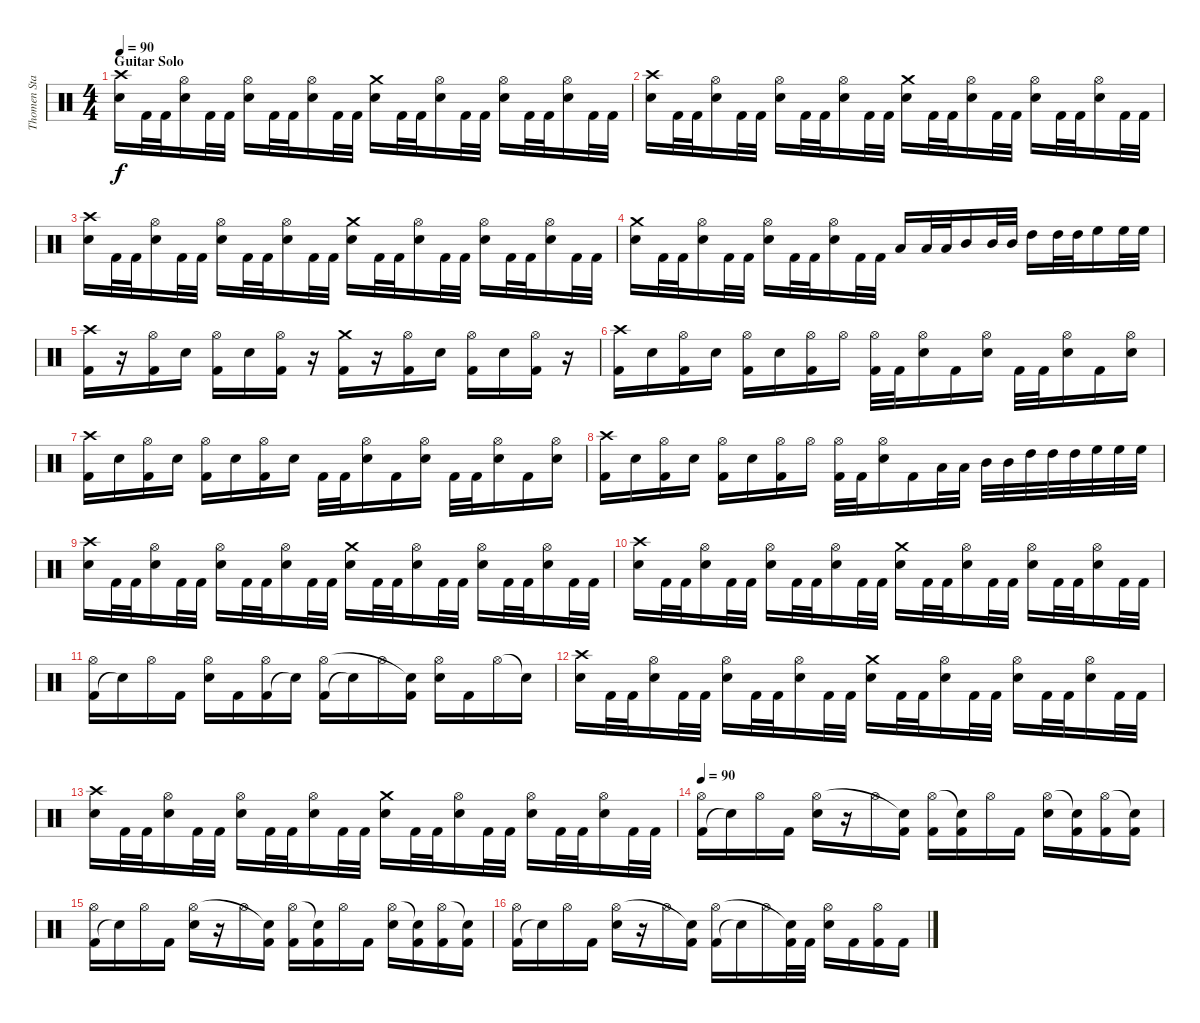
\track ("Thomen Stauch" "Thomen Sta") {instrument percussion}
\staff {score}
\articulation defaults
\ts (4 4)
\section ("" "Guitar Solo")
\tempo 90
\clef neutral
\ks c
("Snare (hit) 2" "Crash high (hit)").16{dy f} "Kick (hit) 2".32 "Kick (hit) 2".32 ("Snare (hit) 2" "Hi-Hat (open)").16 "Kick (hit) 2".32 "Kick (hit) 2".32 ("Snare (hit) 2" "Hi-Hat (open)").16 "Kick (hit) 2".32 "Kick (hit) 2".32 ("Snare (hit) 2" "Hi-Hat (open)").16 "Kick (hit) 2".32 "Kick (hit) 2".32 ("Snare (hit) 2" "Crash medium (hit)").16 "Kick (hit) 2".32 "Kick (hit) 2".32 ("Snare (hit) 2" "Hi-Hat (open)").16 "Kick (hit) 2".32 "Kick (hit) 2".32 ("Snare (hit) 2" "Hi-Hat (open)").16 "Kick (hit) 2".32 "Kick (hit) 2".32 ("Snare (hit) 2" "Hi-Hat (open)").16 "Kick (hit) 2".32 "Kick (hit) 2".32 |
("Snare (hit) 2" "Crash high (hit)").16 "Kick (hit) 2".32 "Kick (hit) 2".32 ("Snare (hit) 2" "Hi-Hat (open)").16 "Kick (hit) 2".32 "Kick (hit) 2".32 ("Snare (hit) 2" "Hi-Hat (open)").16 "Kick (hit) 2".32 "Kick (hit) 2".32 ("Snare (hit) 2" "Hi-Hat (open)").16 "Kick (hit) 2".32 "Kick (hit) 2".32 ("Snare (hit) 2" "Crash medium (hit)").16 "Kick (hit) 2".32 "Kick (hit) 2".32 ("Snare (hit) 2" "Hi-Hat (open)").16 "Kick (hit) 2".32 "Kick (hit) 2".32 ("Snare (hit) 2" "Hi-Hat (open)").16 "Kick (hit) 2".32 "Kick (hit) 2".32 ("Snare (hit) 2" "Hi-Hat (open)").16 "Kick (hit) 2".32 "Kick (hit) 2".32 |
("Snare (hit) 2" "Crash high (hit)").16 "Kick (hit) 2".32 "Kick (hit) 2".32 ("Snare (hit) 2" "Hi-Hat (open)").16 "Kick (hit) 2".32 "Kick (hit) 2".32 ("Snare (hit) 2" "Hi-Hat (open)").16 "Kick (hit) 2".32 "Kick (hit) 2".32 ("Snare (hit) 2" "Hi-Hat (open)").16 "Kick (hit) 2".32 "Kick (hit) 2".32 ("Snare (hit) 2" "Crash medium (hit)").16 "Kick (hit) 2".32 "Kick (hit) 2".32 ("Snare (hit) 2" "Hi-Hat (open)").16 "Kick (hit) 2".32 "Kick (hit) 2".32 ("Snare (hit) 2" "Hi-Hat (open)").16 "Kick (hit) 2".32 "Kick (hit) 2".32 ("Snare (hit) 2" "Hi-Hat (open)").16 "Kick (hit) 2".32 "Kick (hit) 2".32 |
("Snare (hit) 2" "Crash medium (hit)").16 "Kick (hit) 2".32 "Kick (hit) 2".32 ("Snare (hit) 2" "Hi-Hat (open)").16 "Kick (hit) 2".32 "Kick (hit) 2".32 ("Snare (hit) 2" "Hi-Hat (open)").16 "Kick (hit) 2".32 "Kick (hit) 2".32 ("Snare (hit) 2" "Hi-Hat (open)").16 "Kick (hit) 2".32 "Kick (hit) 2".32 "Low Tom (hit)".16 "Low Tom (hit)".32 "Low Tom (hit)".32 "Mid Tom (hit)".16 "Mid Tom (hit)".32 "Mid Tom (hit)".32 "High Tom (hit)".16 "High Tom (hit)".32 "High Tom (hit)".32 "High Floor Tom (hit)".16 "High Floor Tom (hit)".32 "High Floor Tom (hit)".32 |
("Kick (hit) 2" "Crash high (hit)").16 r.16 ("Kick (hit) 2" "Hi-Hat (open)").16 "Snare (hit) 2".16 ("Kick (hit) 2" "Hi-Hat (open)").16 "Snare (hit) 2".16 ("Kick (hit) 2" "Hi-Hat (open)").16 r.16 ("Kick (hit) 2" "Crash medium (hit)").16 r.16 ("Kick (hit) 2" "Hi-Hat (open)").16 "Snare (hit) 2".16 ("Kick (hit) 2" "Hi-Hat (open)").16 "Snare (hit) 2".16 ("Kick (hit) 2" "Hi-Hat (open)").16 r.16 |
("Kick (hit) 2" "Crash high (hit)").16 "Snare (hit) 2".16 ("Kick (hit) 2" "Hi-Hat (open)").16 "Snare (hit) 2".16 ("Kick (hit) 2" "Hi-Hat (open)").16 "Snare (hit) 2".16 ("Kick (hit) 2" "Hi-Hat (open)").16 "Hi-Hat (open)".16 ("Kick (hit) 2" "Hi-Hat (open)").32 "Kick (hit) 2".32 ("Snare (hit) 2" "Hi-Hat (open)").16 "Kick (hit) 2".16 ("Snare (hit) 2" "Hi-Hat (open)").16 "Kick (hit) 2".32 "Kick (hit) 2".32 ("Snare (hit) 2" "Hi-Hat (open)").16 "Kick (hit) 2".16 ("Snare (hit) 2" "Hi-Hat (open)").16 |
("Kick (hit) 2" "Crash high (hit)").16 "Snare (hit) 2".16 ("Kick (hit) 2" "Hi-Hat (open)").16 "Snare (hit) 2".16 ("Kick (hit) 2" "Hi-Hat (open)").16 "Snare (hit) 2".16 ("Kick (hit) 2" "Hi-Hat (open)").16 "Snare (hit) 2".16 "Kick (hit) 2".32 "Kick (hit) 2".32 ("Snare (hit) 2" "Hi-Hat (open)").16 "Kick (hit) 2".16 ("Snare (hit) 2" "Hi-Hat (open)").16 "Kick (hit) 2".32 "Kick (hit) 2".32 ("Snare (hit) 2" "Hi-Hat (open)").16 "Kick (hit) 2".16 ("Snare (hit) 2" "Hi-Hat (open)").16 |
("Kick (hit) 2" "Crash high (hit)").16 "Snare (hit) 2".16 ("Kick (hit) 2" "Hi-Hat (open)").16 "Snare (hit) 2".16 ("Kick (hit) 2" "Hi-Hat (open)").16 "Snare (hit) 2".16 ("Kick (hit) 2" "Hi-Hat (open)").16 "Hi-Hat (open)".16 ("Kick (hit) 2" "Hi-Hat (open)").32 "Kick (hit) 2".32 ("Snare (hit) 2" "Hi-Hat (open)").16 "Kick (hit) 2".16 "Low Tom (hit)".32 "Low Tom (hit)".32 "Mid Tom (hit)".32 "Mid Tom (hit)".32 "High Tom (hit)".32 "High Tom (hit)".32 "High Tom (hit)".32 "High Floor Tom (hit)".32 "High Floor Tom (hit)".32 "High Floor Tom (hit)".32 |
("Snare (hit) 2" "Crash high (hit)").16 "Kick (hit) 2".32 "Kick (hit) 2".32 ("Snare (hit) 2" "Hi-Hat (open)").16 "Kick (hit) 2".32 "Kick (hit) 2".32 ("Snare (hit) 2" "Hi-Hat (open)").16 "Kick (hit) 2".32 "Kick (hit) 2".32 ("Snare (hit) 2" "Hi-Hat (open)").16 "Kick (hit) 2".32 "Kick (hit) 2".32 ("Snare (hit) 2" "Crash medium (hit)").16 "Kick (hit) 2".32 "Kick (hit) 2".32 ("Snare (hit) 2" "Hi-Hat (open)").16 "Kick (hit) 2".32 "Kick (hit) 2".32 ("Snare (hit) 2" "Hi-Hat (open)").16 "Kick (hit) 2".32 "Kick (hit) 2".32 ("Snare (hit) 2" "Hi-Hat (open)").16 "Kick (hit) 2".32 "Kick (hit) 2".32 |
("Snare (hit) 2" "Crash high (hit)").16 "Kick (hit) 2".32 "Kick (hit) 2".32 ("Snare (hit) 2" "Hi-Hat (open)").16 "Kick (hit) 2".32 "Kick (hit) 2".32 ("Snare (hit) 2" "Hi-Hat (open)").16 "Kick (hit) 2".32 "Kick (hit) 2".32 ("Snare (hit) 2" "Hi-Hat (open)").16 "Kick (hit) 2".32 "Kick (hit) 2".32 ("Snare (hit) 2" "Crash medium (hit)").16 "Kick (hit) 2".32 "Kick (hit) 2".32 ("Snare (hit) 2" "Hi-Hat (open)").16 "Kick (hit) 2".32 "Kick (hit) 2".32 ("Snare (hit) 2" "Hi-Hat (open)").16 "Kick (hit) 2".32 "Kick (hit) 2".32 ("Snare (hit) 2" "Hi-Hat (open)").16 "Kick (hit) 2".32 "Kick (hit) 2".32 |
("Kick (hit) 2" "Hi-Hat (open)").16 "Snare (hit)"{t}.16 "Hi-Hat (open)".16 "Kick (hit) 2".16 ("Snare (hit) 2" "Hi-Hat (open)").16 "Kick (hit) 2".16 ("Kick (hit) 2" "Hi-Hat (open)").16 "Snare (hit)"{t}.16 ("Kick (hit) 2" "Hi-Hat (open)").16 "Snare (hit)"{t}.16 "Hi-Hat (open)".16 ("Kick (hit) 2" "Snare (hit)"{t}).16 ("Snare (hit) 2" "Hi-Hat (open)").16 "Kick (hit) 2".16 "Hi-Hat (open)".16 "Snare (hit)"{t}.16 |
("Snare (hit) 2" "Crash high (hit)").16 "Kick (hit) 2".32 "Kick (hit) 2".32 ("Snare (hit) 2" "Hi-Hat (open)").16 "Kick (hit) 2".32 "Kick (hit) 2".32 ("Snare (hit) 2" "Hi-Hat (open)").16 "Kick (hit) 2".32 "Kick (hit) 2".32 ("Snare (hit) 2" "Hi-Hat (open)").16 "Kick (hit) 2".32 "Kick (hit) 2".32 ("Snare (hit) 2" "Crash medium (hit)").16 "Kick (hit) 2".32 "Kick (hit) 2".32 ("Snare (hit) 2" "Hi-Hat (open)").16 "Kick (hit) 2".32 "Kick (hit) 2".32 ("Snare (hit) 2" "Hi-Hat (open)").16 "Kick (hit) 2".32 "Kick (hit) 2".32 ("Snare (hit) 2" "Hi-Hat (open)").16 "Kick (hit) 2".32 "Kick (hit) 2".32 |
("Snare (hit) 2" "Crash high (hit)").16 "Kick (hit) 2".32 "Kick (hit) 2".32 ("Snare (hit) 2" "Hi-Hat (open)").16 "Kick (hit) 2".32 "Kick (hit) 2".32 ("Snare (hit) 2" "Hi-Hat (open)").16 "Kick (hit) 2".32 "Kick (hit) 2".32 ("Snare (hit) 2" "Hi-Hat (open)").16 "Kick (hit) 2".32 "Kick (hit) 2".32 ("Snare (hit) 2" "Crash medium (hit)").16 "Kick (hit) 2".32 "Kick (hit) 2".32 ("Snare (hit) 2" "Hi-Hat (open)").16 "Kick (hit) 2".32 "Kick (hit) 2".32 ("Snare (hit) 2" "Hi-Hat (open)").16 "Kick (hit) 2".32 "Kick (hit) 2".32 ("Snare (hit) 2" "Hi-Hat (open)").16 "Kick (hit) 2".32 "Kick (hit) 2".32 |
\tempo 90
("Kick (hit) 2" "Hi-Hat (open)").16 "Snare (hit)"{t}.16 "Hi-Hat (open)".16 "Kick (hit) 2".16 ("Snare (hit) 2" "Hi-Hat (open)").16 r.16 "Hi-Hat (open)".16 ("Kick (hit) 2" "Snare (hit)"{t}).16 ("Kick (hit) 2" "Hi-Hat (open)").16 ("Kick (hit) 2" "Snare (hit)"{t}).16 "Hi-Hat (open)".16 "Kick (hit) 2".16 ("Snare (hit) 2" "Hi-Hat (open)").16 ("Kick (hit) 2" "Snare (hit)"{t}).16 ("Kick (hit) 2" "Hi-Hat (open)").16 ("Kick (hit) 2" "Snare (hit)"{t}).16 |
("Kick (hit) 2" "Hi-Hat (open)").16 "Snare (hit)"{t}.16 "Hi-Hat (open)".16 "Kick (hit) 2".16 ("Snare (hit) 2" "Hi-Hat (open)").16 r.16 "Hi-Hat (open)".16 ("Kick (hit) 2" "Snare (hit)"{t}).16 ("Kick (hit) 2" "Hi-Hat (open)").16 ("Kick (hit) 2" "Snare (hit)"{t}).16 "Hi-Hat (open)".16 "Kick (hit) 2".16 ("Snare (hit) 2" "Hi-Hat (open)").16 ("Kick (hit) 2" "Snare (hit)"{t}).16 ("Kick (hit) 2" "Hi-Hat (open)").16 ("Kick (hit) 2" "Snare (hit)"{t}).16 |
("Kick (hit) 2" "Hi-Hat (open)").16 "Snare (hit)"{t}.16 "Hi-Hat (open)".16 "Kick (hit) 2".16 ("Snare (hit) 2" "Hi-Hat (open)").16 r.16 "Hi-Hat (open)".16 ("Kick (hit) 2" "Snare (hit)"{t}).16 ("Kick (hit) 2" "Hi-Hat (open)").16 "Snare (hit)"{t}.16 "Hi-Hat (open)".16 ("Kick (hit) 2" "Snare (hit)"{t}).32 "Kick (hit) 2".32 ("Snare (hit) 2" "Hi-Hat (open)").16 "Kick (hit) 2".16 ("Kick (hit) 2" "Hi-Hat (open)").16 "Kick (hit) 2".16
